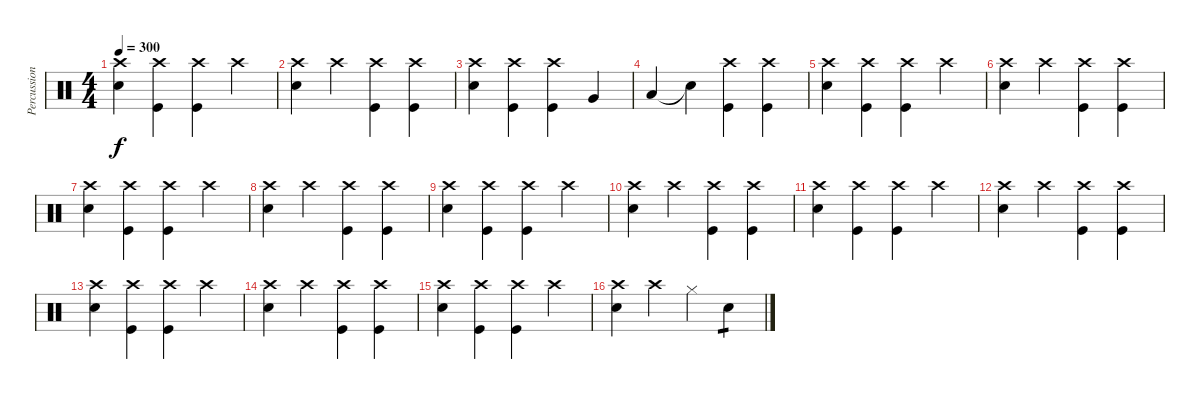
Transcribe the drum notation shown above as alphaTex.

\track ("Percussion" "Percussion") {instrument percussion}
\staff {score}
\articulation defaults
\ts (4 4)
\tempo 300
\clef neutral
\ks c
("Electric Snare (hit)" "Crash high (hit)").4{dy f} ("Kick (hit)" "Crash high (hit)").4 ("Kick (hit)" "Crash high (hit)").4 "Crash high (hit)".4 |
("Electric Snare (hit)" "Crash high (hit)").4 "Crash high (hit)".4 ("Kick (hit)" "Crash high (hit)").4 ("Kick (hit)" "Crash high (hit)").4 |
("Electric Snare (hit)" "Crash high (hit)").4 ("Kick (hit)" "Crash high (hit)").4 ("Kick (hit)" "Crash high (hit)").4 "Very Low Tom (hit)".4 |
"Low Floor Tom (hit)".4 "Snare (hit)"{t}.4 ("Kick (hit)" "Crash high (hit)").4 ("Kick (hit)" "Crash high (hit)").4 |
("Electric Snare (hit)" "Crash high (hit)").4 ("Kick (hit)" "Crash high (hit)").4 ("Kick (hit)" "Crash high (hit)").4 "Crash high (hit)".4 |
("Electric Snare (hit)" "Crash high (hit)").4 "Crash high (hit)".4 ("Kick (hit)" "Crash high (hit)").4 ("Kick (hit)" "Crash high (hit)").4 |
("Electric Snare (hit)" "Crash high (hit)").4 ("Kick (hit)" "Crash high (hit)").4 ("Kick (hit)" "Crash high (hit)").4 "Crash high (hit)".4 |
("Electric Snare (hit)" "Crash high (hit)").4 "Crash high (hit)".4 ("Kick (hit)" "Crash high (hit)").4 ("Kick (hit)" "Crash high (hit)").4 |
("Electric Snare (hit)" "Crash high (hit)").4 ("Kick (hit)" "Crash high (hit)").4 ("Kick (hit)" "Crash high (hit)").4 "Crash high (hit)".4 |
("Electric Snare (hit)" "Crash high (hit)").4 "Crash high (hit)".4 ("Kick (hit)" "Crash high (hit)").4 ("Kick (hit)" "Crash high (hit)").4 |
("Electric Snare (hit)" "Crash high (hit)").4 ("Kick (hit)" "Crash high (hit)").4 ("Kick (hit)" "Crash high (hit)").4 "Crash high (hit)".4 |
("Electric Snare (hit)" "Crash high (hit)").4 "Crash high (hit)".4 ("Kick (hit)" "Crash high (hit)").4 ("Kick (hit)" "Crash high (hit)").4 |
("Electric Snare (hit)" "Crash high (hit)").4 ("Kick (hit)" "Crash high (hit)").4 ("Kick (hit)" "Crash high (hit)").4 "Crash high (hit)".4 |
("Electric Snare (hit)" "Crash high (hit)").4 "Crash high (hit)".4 ("Kick (hit)" "Crash high (hit)").4 ("Kick (hit)" "Crash high (hit)").4 |
("Electric Snare (hit)" "Crash high (hit)").4 ("Kick (hit)" "Crash high (hit)").4 ("Kick (hit)" "Crash high (hit)").4 "Crash high (hit)".4 |
("Electric Snare (hit)" "Crash high (hit)").4 "Crash high (hit)".4 "Hi-Hat (closed)".4 "Electric Snare (hit)".4{tp 1}
